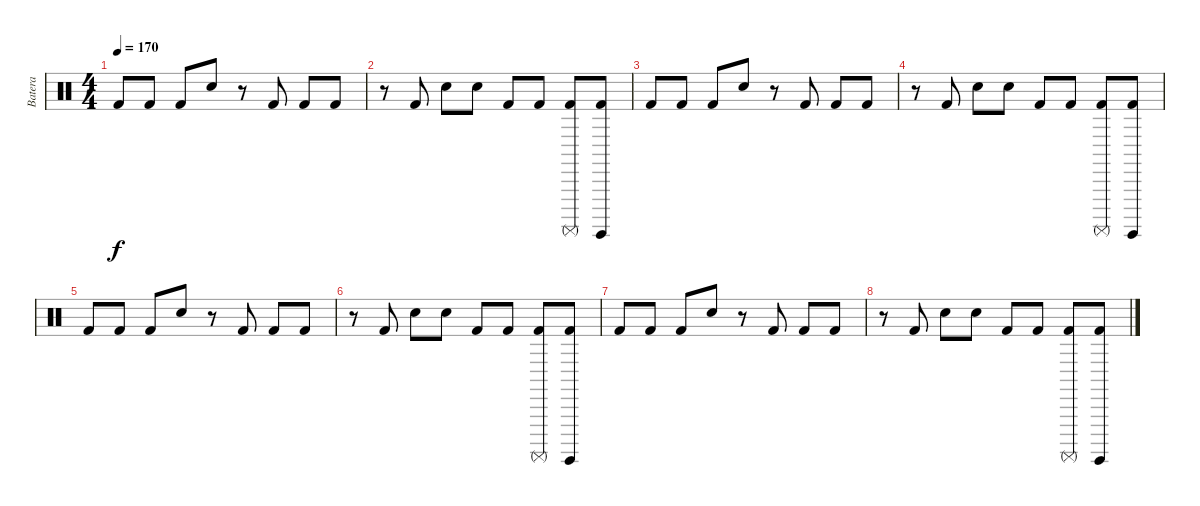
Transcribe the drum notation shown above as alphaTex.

\track ("Batera" "Batera") {instrument percussion}
\staff {score}
\articulation defaults
\ts (4 4)
\tempo 170
\clef neutral
\ks c "Kick (hit) 2".8{dy f} "Kick (hit) 2".8 "Kick (hit) 2".8 "Electric Snare (hit)".8
r.8 "Kick (hit) 2".8 "Kick (hit) 2".8 "Kick (hit) 2".8 |
r.8 "Kick (hit) 2".8 "Electric Snare (hit)".8 "Electric Snare (hit)".8 "Kick (hit) 2".8 "Kick (hit) 2".8 ("Kick (hit) 2" "Surdo (mute)").8 ("Kick (hit) 2" "Surdo (hit)").8 |
"Kick (hit) 2".8 "Kick (hit) 2".8 "Kick (hit) 2".8 "Electric Snare (hit)".8 r.8 "Kick (hit) 2".8 "Kick (hit) 2".8 "Kick (hit) 2".8 |
r.8 "Kick (hit) 2".8 "Electric Snare (hit)".8 "Electric Snare (hit)".8 "Kick (hit) 2".8 "Kick (hit) 2".8 ("Kick (hit) 2" "Surdo (mute)").8 ("Kick (hit) 2" "Surdo (hit)").8 |
"Kick (hit) 2".8 "Kick (hit) 2".8 "Kick (hit) 2".8 "Electric Snare (hit)".8 r.8 "Kick (hit) 2".8 "Kick (hit) 2".8 "Kick (hit) 2".8 |
r.8 "Kick (hit) 2".8 "Electric Snare (hit)".8 "Electric Snare (hit)".8 "Kick (hit) 2".8 "Kick (hit) 2".8 ("Kick (hit) 2" "Surdo (mute)").8 ("Kick (hit) 2" "Surdo (hit)").8 |
"Kick (hit) 2".8 "Kick (hit) 2".8 "Kick (hit) 2".8 "Electric Snare (hit)".8 r.8 "Kick (hit) 2".8 "Kick (hit) 2".8 "Kick (hit) 2".8 |
r.8 "Kick (hit) 2".8 "Electric Snare (hit)".8 "Electric Snare (hit)".8 "Kick (hit) 2".8 "Kick (hit) 2".8 ("Kick (hit) 2" "Surdo (mute)").8 ("Kick (hit) 2" "Surdo (hit)").8
